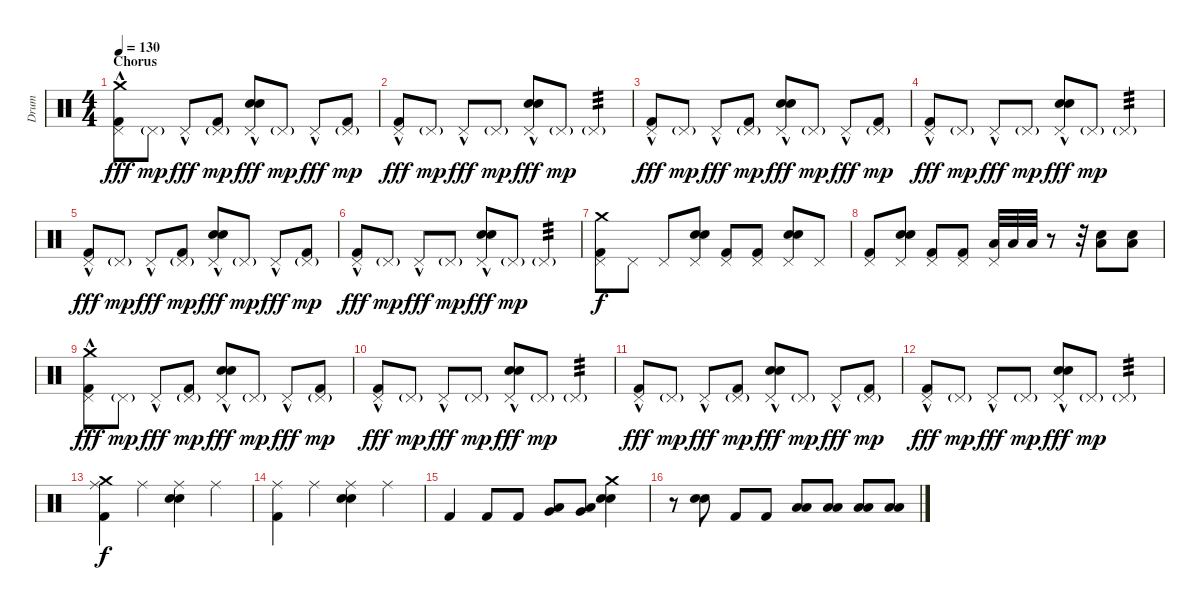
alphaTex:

\track ("Drum" "Drum") {instrument percussion}
\staff {score}
\articulation defaults
\ts (4 4)
\section ("" "Chorus")
\tempo 130
\clef neutral
\ks c
("Crash medium (hit)" "Kick (hit) 2" "Pedal Hi-Hat (hit)"{hac}).8{dy fff} "Pedal Hi-Hat (hit)"{g}.8{dy mp} "Pedal Hi-Hat (hit)"{hac}.8{dy fff} ("Kick (hit) 2" "Pedal Hi-Hat (hit)"{g}).8{dy mp} ("Electric Snare (hit)" "Electric Snare (hit)" "Pedal Hi-Hat (hit)"{hac}).8{dy fff} "Pedal Hi-Hat (hit)"{g}.8{dy mp} "Pedal Hi-Hat (hit)"{hac}.8{dy fff} ("Kick (hit) 2" "Pedal Hi-Hat (hit)"{g}).8{dy mp} |
("Kick (hit) 2" "Pedal Hi-Hat (hit)"{hac}).8{dy fff} "Pedal Hi-Hat (hit)"{g}.8{dy mp} "Pedal Hi-Hat (hit)"{hac}.8{dy fff} "Pedal Hi-Hat (hit)"{g}.8{dy mp} ("Electric Snare (hit)" "Electric Snare (hit)" "Pedal Hi-Hat (hit)"{hac}).8{dy fff} "Pedal Hi-Hat (hit)"{g}.8{dy mp} "Pedal Hi-Hat (hit)"{g}.4{tp 3} |
("Kick (hit) 2" "Pedal Hi-Hat (hit)"{hac}).8{dy fff} "Pedal Hi-Hat (hit)"{g}.8{dy mp} "Pedal Hi-Hat (hit)"{hac}.8{dy fff} ("Kick (hit) 2" "Pedal Hi-Hat (hit)"{g}).8{dy mp} ("Electric Snare (hit)" "Electric Snare (hit)" "Pedal Hi-Hat (hit)"{hac}).8{dy fff} "Pedal Hi-Hat (hit)"{g}.8{dy mp} "Pedal Hi-Hat (hit)"{hac}.8{dy fff} ("Kick (hit) 2" "Pedal Hi-Hat (hit)"{g}).8{dy mp} |
("Kick (hit) 2" "Pedal Hi-Hat (hit)"{hac}).8{dy fff} "Pedal Hi-Hat (hit)"{g}.8{dy mp} "Pedal Hi-Hat (hit)"{hac}.8{dy fff} "Pedal Hi-Hat (hit)"{g}.8{dy mp} ("Electric Snare (hit)" "Electric Snare (hit)" "Pedal Hi-Hat (hit)"{hac}).8{dy fff} "Pedal Hi-Hat (hit)"{g}.8{dy mp} "Pedal Hi-Hat (hit)"{g}.4{tp 3} |
("Kick (hit) 2" "Pedal Hi-Hat (hit)"{hac}).8{dy fff} "Pedal Hi-Hat (hit)"{g}.8{dy mp} "Pedal Hi-Hat (hit)"{hac}.8{dy fff} ("Kick (hit) 2" "Pedal Hi-Hat (hit)"{g}).8{dy mp} ("Electric Snare (hit)" "Electric Snare (hit)" "Pedal Hi-Hat (hit)"{hac}).8{dy fff} "Pedal Hi-Hat (hit)"{g}.8{dy mp} "Pedal Hi-Hat (hit)"{hac}.8{dy fff} ("Kick (hit) 2" "Pedal Hi-Hat (hit)"{g}).8{dy mp} |
("Kick (hit) 2" "Pedal Hi-Hat (hit)"{hac}).8{dy fff} "Pedal Hi-Hat (hit)"{g}.8{dy mp} "Pedal Hi-Hat (hit)"{hac}.8{dy fff} "Pedal Hi-Hat (hit)"{g}.8{dy mp} ("Electric Snare (hit)" "Electric Snare (hit)" "Pedal Hi-Hat (hit)"{hac}).8{dy fff} "Pedal Hi-Hat (hit)"{g}.8{dy mp} "Pedal Hi-Hat (hit)"{g}.4{tp 3} |
("Crash medium (hit)" "Kick (hit) 2" "Pedal Hi-Hat (hit)").8{dy f} "Pedal Hi-Hat (hit)".8 "Pedal Hi-Hat (hit)".8 ("Electric Snare (hit)" "Electric Snare (hit)" "Pedal Hi-Hat (hit)").8 ("Kick (hit) 2" "Pedal Hi-Hat (hit)").8 ("Kick (hit) 2" "Pedal Hi-Hat (hit)").8 ("Electric Snare (hit)" "Electric Snare (hit)" "Pedal Hi-Hat (hit)").8 "Pedal Hi-Hat (hit)".8 |
("Kick (hit) 2" "Pedal Hi-Hat (hit)").8 ("Electric Snare (hit)" "Electric Snare (hit)" "Pedal Hi-Hat (hit)").8 ("Kick (hit) 2" "Pedal Hi-Hat (hit)").8 ("Kick (hit) 2" "Pedal Hi-Hat (hit)").8 ("Low Tom (hit)" "Pedal Hi-Hat (hit)").32 "Low Tom (hit)".32 "Low Tom (hit)".32 r.8 r.32 ("Electric Snare (hit)" "Low Tom (hit)").8 ("Electric Snare (hit)" "Low Tom (hit)").8 |
("Crash medium (hit)" "Kick (hit) 2" "Pedal Hi-Hat (hit)"{hac}).8{dy fff} "Pedal Hi-Hat (hit)"{g}.8{dy mp} "Pedal Hi-Hat (hit)"{hac}.8{dy fff} ("Kick (hit) 2" "Pedal Hi-Hat (hit)"{g}).8{dy mp} ("Electric Snare (hit)" "Electric Snare (hit)" "Pedal Hi-Hat (hit)"{hac}).8{dy fff} "Pedal Hi-Hat (hit)"{g}.8{dy mp} "Pedal Hi-Hat (hit)"{hac}.8{dy fff} ("Kick (hit) 2" "Pedal Hi-Hat (hit)"{g}).8{dy mp} |
("Kick (hit) 2" "Pedal Hi-Hat (hit)"{hac}).8{dy fff} "Pedal Hi-Hat (hit)"{g}.8{dy mp} "Pedal Hi-Hat (hit)"{hac}.8{dy fff} "Pedal Hi-Hat (hit)"{g}.8{dy mp} ("Electric Snare (hit)" "Electric Snare (hit)" "Pedal Hi-Hat (hit)"{hac}).8{dy fff} "Pedal Hi-Hat (hit)"{g}.8{dy mp} "Pedal Hi-Hat (hit)"{g}.4{tp 3} |
("Kick (hit) 2" "Pedal Hi-Hat (hit)"{hac}).8{dy fff} "Pedal Hi-Hat (hit)"{g}.8{dy mp} "Pedal Hi-Hat (hit)"{hac}.8{dy fff} ("Kick (hit) 2" "Pedal Hi-Hat (hit)"{g}).8{dy mp} ("Electric Snare (hit)" "Electric Snare (hit)" "Pedal Hi-Hat (hit)"{hac}).8{dy fff} "Pedal Hi-Hat (hit)"{g}.8{dy mp} "Pedal Hi-Hat (hit)"{hac}.8{dy fff} ("Kick (hit) 2" "Pedal Hi-Hat (hit)"{g}).8{dy mp} |
("Kick (hit) 2" "Pedal Hi-Hat (hit)"{hac}).8{dy fff} "Pedal Hi-Hat (hit)"{g}.8{dy mp} "Pedal Hi-Hat (hit)"{hac}.8{dy fff} "Pedal Hi-Hat (hit)"{g}.8{dy mp} ("Electric Snare (hit)" "Electric Snare (hit)" "Pedal Hi-Hat (hit)"{hac}).8{dy fff} "Pedal Hi-Hat (hit)"{g}.8{dy mp} "Pedal Hi-Hat (hit)"{g}.4{tp 3} |
("Crash medium (hit)" "Kick (hit) 2" "Ride (middle)").4{dy f} "Ride (middle)".4 ("Electric Snare (hit)" "Electric Snare (hit)" "Ride (middle)").4 "Ride (middle)".4 |
("Kick (hit) 2" "Ride (middle)").4 "Ride (middle)".4 ("Electric Snare (hit)" "Electric Snare (hit)" "Ride (middle)").4 "Ride (middle)".4 |
"Kick (hit) 2".4 "Kick (hit) 2".8 "Kick (hit) 2".8 ("Low Floor Tom (hit)" "Very Low Tom (hit)").8 ("Low Floor Tom (hit)" "Very Low Tom (hit)").8 ("Crash medium (hit)" "Electric Snare (hit)" "Electric Snare (hit)").4 |
r.8 ("Electric Snare (hit)" "Electric Snare (hit)").8 "Kick (hit) 2".8 "Kick (hit) 2".8 ("Low Floor Tom (hit)" "Low Tom (hit)").8 ("Low Floor Tom (hit)" "Low Tom (hit)").8 ("Low Floor Tom (hit)" "Low Tom (hit)").8 ("Low Floor Tom (hit)" "Low Tom (hit)").8
